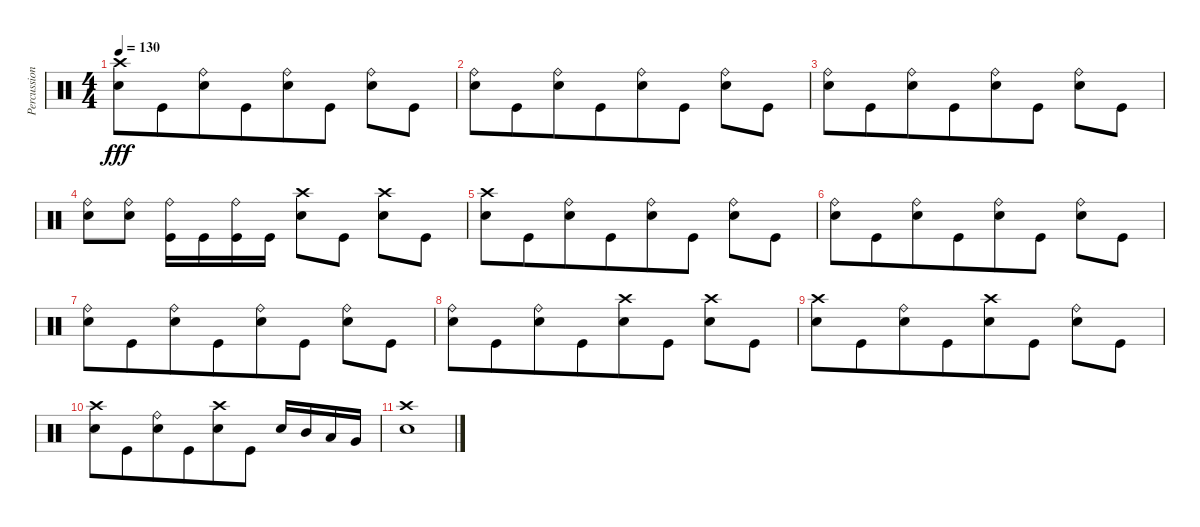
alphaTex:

\track ("Percussion" "Percussion") {instrument percussion bank 255}
\staff {score}
\articulation defaults
\ts (4 4)
\tempo 130
\clef neutral
\ks c
("Snare (hit) 2" "Crash high (hit)").8{dy fff} "Kick (hit)".8{beam merge} ("Snare (hit) 2" "Ride (bell)").8 "Kick (hit)".8{beam merge} ("Snare (hit) 2" "Ride (bell)").8{beam merge} "Kick (hit)".8 ("Snare (hit) 2" "Ride (bell)").8{beam merge} "Kick (hit)".8 |
("Snare (hit) 2" "Ride (bell)").8 "Kick (hit)".8{beam merge} ("Snare (hit) 2" "Ride (bell)").8 "Kick (hit)".8{beam merge} ("Snare (hit) 2" "Ride (bell)").8{beam merge} "Kick (hit)".8 ("Snare (hit) 2" "Ride (bell)").8{beam merge} "Kick (hit)".8 |
("Snare (hit) 2" "Ride (bell)").8 "Kick (hit)".8{beam merge} ("Snare (hit) 2" "Ride (bell)").8 "Kick (hit)".8{beam merge} ("Snare (hit) 2" "Ride (bell)").8{beam merge} "Kick (hit)".8 ("Snare (hit) 2" "Ride (bell)").8{beam merge} "Kick (hit)".8 |
("Snare (hit) 2" "Ride (bell)").8 ("Snare (hit) 2" "Ride (bell)").8 ("Kick (hit)" "Ride (bell)").16 "Kick (hit)".16 ("Kick (hit)" "Ride (bell)").16 "Kick (hit)".16 ("Snare (hit) 2" "Crash high (hit)").8 "Kick (hit)".8 ("Snare (hit) 2" "Crash high (hit)").8 "Kick (hit)".8 |
("Snare (hit) 2" "Crash high (hit)").8 "Kick (hit)".8{beam merge} ("Snare (hit) 2" "Ride (bell)").8 "Kick (hit)".8{beam merge} ("Snare (hit) 2" "Ride (bell)").8{beam merge} "Kick (hit)".8 ("Snare (hit) 2" "Ride (bell)").8{beam merge} "Kick (hit)".8 |
("Snare (hit) 2" "Ride (bell)").8 "Kick (hit)".8{beam merge} ("Snare (hit) 2" "Ride (bell)").8 "Kick (hit)".8{beam merge} ("Snare (hit) 2" "Ride (bell)").8{beam merge} "Kick (hit)".8 ("Snare (hit) 2" "Ride (bell)").8{beam merge} "Kick (hit)".8 |
("Snare (hit) 2" "Ride (bell)").8 "Kick (hit)".8{beam merge} ("Snare (hit) 2" "Ride (bell)").8 "Kick (hit)".8{beam merge} ("Snare (hit) 2" "Ride (bell)").8{beam merge} "Kick (hit)".8 ("Snare (hit) 2" "Ride (bell)").8{beam merge} "Kick (hit)".8 |
("Snare (hit) 2" "Ride (bell)").8 "Kick (hit)".8{beam merge} ("Snare (hit) 2" "Ride (bell)").8 "Kick (hit)".8{beam merge} ("Snare (hit) 2" "Crash high (hit)").8{beam merge} "Kick (hit)".8 ("Snare (hit) 2" "Crash high (hit)").8{beam merge} "Kick (hit)".8 |
("Snare (hit) 2" "Crash high (hit)").8 "Kick (hit)".8{beam merge} ("Snare (hit) 2" "Ride (bell)").8 "Kick (hit)".8{beam merge} ("Snare (hit) 2" "Crash high (hit)").8{beam merge} "Kick (hit)".8 ("Snare (hit) 2" "Ride (bell)").8{beam merge} "Kick (hit)".8 |
("Snare (hit) 2" "Crash high (hit)").8 "Kick (hit)".8{beam merge} ("Snare (hit) 2" "Ride (bell)").8 "Kick (hit)".8{beam merge} ("Snare (hit) 2" "Crash high (hit)").8{beam merge} "Kick (hit)".8 "Snare (hit) 2".16{beam merge} "Mid Tom (hit)".16 "Low Tom (hit)".16{beam merge} "Very Low Tom (hit)".16 |
("Snare (hit) 2" "Crash high (hit)").1
